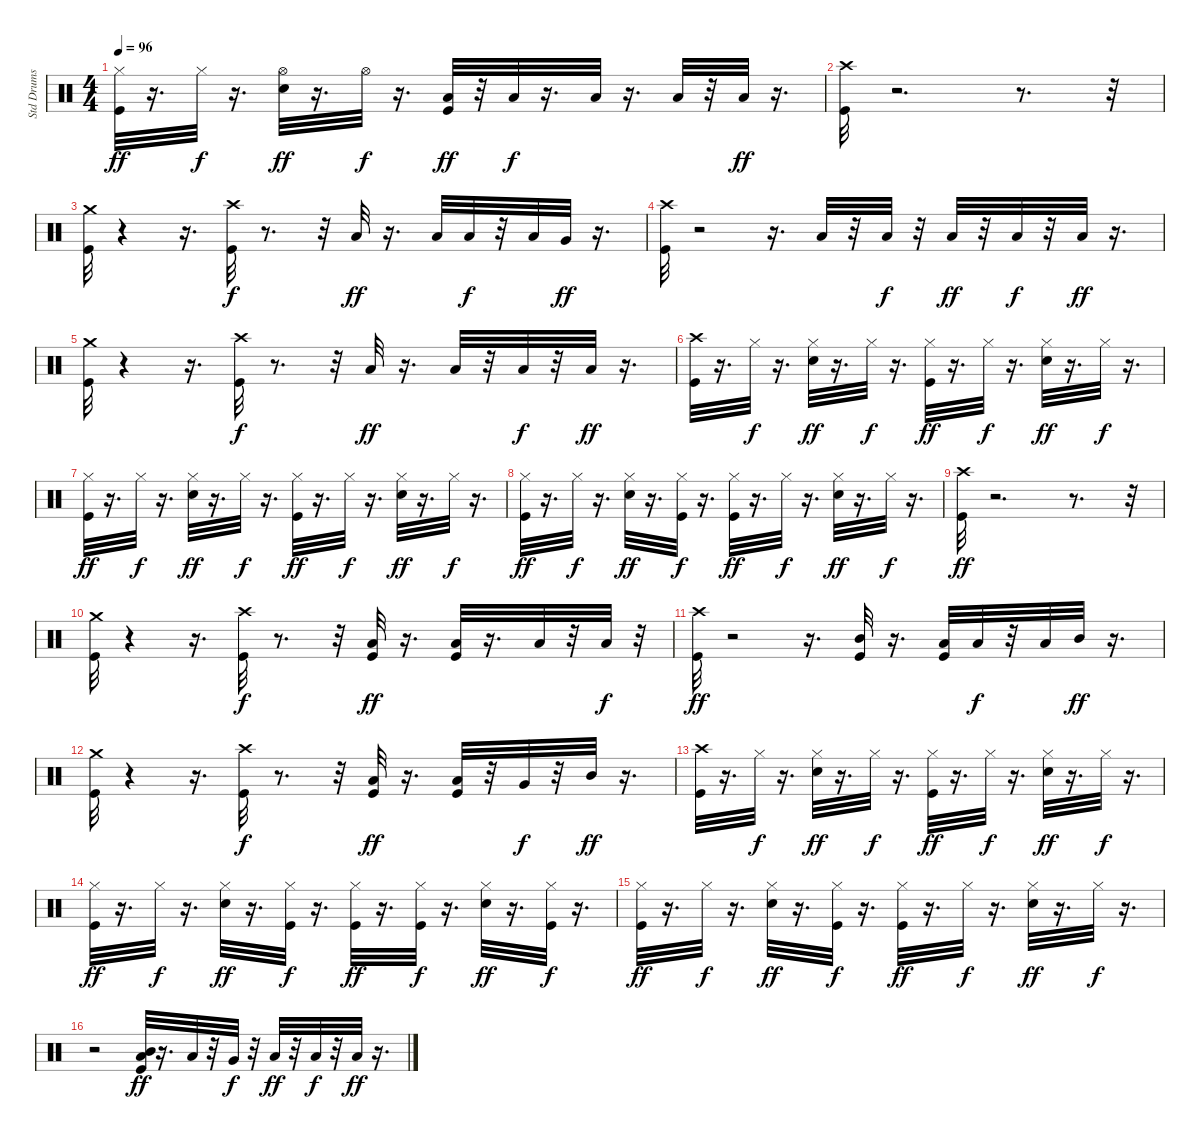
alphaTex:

\track ("Std Drums" "Std Drums") {instrument percussion}
\staff {score}
\articulation defaults
\ts (4 4)
\tempo 96
\clef neutral
\ks c
("Hi-Hat (closed)" "Kick (hit)").32{dy ff} r.16{d} "Hi-Hat (closed)".32{dy f} r.16{d} ("Snare (hit) 2" "Hi-Hat (open)").32{dy ff} r.16{d} "Hi-Hat (open)".32{dy f} r.16{d} ("Kick (hit)" "Low Tom (hit)").32{dy ff} r.32 "Low Tom (hit)".32{dy f} r.16{d} "Low Tom (hit)".32 r.16{d} "Low Floor Tom (hit)".32 r.32 "Low Floor Tom (hit)".32{dy ff} r.16{d} |
("Crash high (hit)" "Kick (hit)").32 r.2{d} r.8{d} r.32 |
("Crash medium (hit)" "Kick (hit)").32 r.4 r.16{d} ("Crash high (hit)" "Kick (hit)").32{dy f} r.8{d} r.32 "Low Tom (hit)".32{dy ff} r.16{d} "Low Floor Tom (hit)".32 "Low Floor Tom (hit)".32{dy f} r.32 "Low Floor Tom (hit)".32 "Very Low Tom (hit)".32{dy ff} r.16{d} |
("Kick (hit)" "Crash high (hit)").32 r.2 r.16{d} "Low Floor Tom (hit)".32 r.32 "Low Floor Tom (hit)".32{dy f} r.32 "Low Floor Tom (hit)".32{dy ff} r.32 "Low Floor Tom (hit)".32{dy f} r.32 "Low Floor Tom (hit)".32{dy ff} r.16{d} |
("Crash medium (hit)" "Kick (hit)").32 r.4 r.16{d} ("Kick (hit)" "Crash high (hit)").32{dy f} r.8{d} r.32 "Low Floor Tom (hit)".32{dy ff} r.16{d} "Low Floor Tom (hit)".32 r.32 "Low Floor Tom (hit)".32{dy f} r.32 "Low Floor Tom (hit)".32{dy ff} r.16{d} |
("Kick (hit)" "Crash high (hit)").32 r.16{d} "Hi-Hat (closed)".32{dy f} r.16{d} ("Hi-Hat (closed)" "Snare (hit) 2").32{dy ff} r.16{d} "Hi-Hat (closed)".32{dy f} r.16{d} ("Hi-Hat (closed)" "Kick (hit)").32{dy ff} r.16{d} "Hi-Hat (closed)".32{dy f} r.16{d} ("Hi-Hat (closed)" "Snare (hit) 2").32{dy ff} r.16{d} "Hi-Hat (closed)".32{dy f} r.16{d} |
("Hi-Hat (closed)" "Kick (hit)").32{dy ff} r.16{d} "Hi-Hat (closed)".32{dy f} r.16{d} ("Hi-Hat (closed)" "Snare (hit) 2").32{dy ff} r.16{d} "Hi-Hat (closed)".32{dy f} r.16{d} ("Hi-Hat (closed)" "Kick (hit)").32{dy ff} r.16{d} "Hi-Hat (closed)".32{dy f} r.16{d} ("Hi-Hat (closed)" "Snare (hit) 2").32{dy ff} r.16{d} "Hi-Hat (closed)".32{dy f} r.16{d} |
("Hi-Hat (closed)" "Kick (hit)").32{dy ff} r.16{d} "Hi-Hat (closed)".32{dy f} r.16{d} ("Hi-Hat (closed)" "Snare (hit) 2").32{dy ff} r.16{d} ("Hi-Hat (closed)" "Kick (hit)").32{dy f} r.16{d} ("Hi-Hat (closed)" "Kick (hit)").32{dy ff} r.16{d} "Hi-Hat (closed)".32{dy f} r.16{d} ("Hi-Hat (closed)" "Snare (hit) 2").32{dy ff} r.16{d} "Hi-Hat (closed)".32{dy f} r.16{d} |
("Kick (hit)" "Crash high (hit)").32{dy ff} r.2{d} r.8{d} r.32 |
("Kick (hit)" "Crash medium (hit)").32 r.4 r.16{d} ("Crash high (hit)" "Kick (hit)").32{dy f} r.8{d} r.32 ("Kick (hit)" "Low Tom (hit)").32{dy ff} r.16{d} ("Kick (hit)" "Low Tom (hit)").32 r.16{d} "Low Floor Tom (hit)".32 r.32 "Low Floor Tom (hit)".32{dy f} r.32 |
("Kick (hit)" "Crash high (hit)").32{dy ff} r.2 r.16{d} ("Mid Tom (hit)" "Kick (hit)").32 r.16{d} ("Low Tom (hit)" "Kick (hit)").32 "Low Tom (hit)".32{dy f} r.32 "Low Floor Tom (hit)".32 "Mid Tom (hit)".32{dy ff} r.16{d} |
("Crash medium (hit)" "Kick (hit)").32 r.4 r.16{d} ("Crash high (hit)" "Kick (hit)").32{dy f} r.8{d} r.32 ("Kick (hit)" "Low Floor Tom (hit)").32{dy ff} r.16{d} ("Low Floor Tom (hit)" "Kick (hit)").32 r.32 "Very Low Tom (hit)".32{dy f} r.32 "Mid Tom (hit)".32{dy ff} r.16{d} |
("Kick (hit)" "Crash high (hit)").32 r.16{d} "Hi-Hat (closed)".32{dy f} r.16{d} ("Hi-Hat (closed)" "Snare (hit) 2").32{dy ff} r.16{d} "Hi-Hat (closed)".32{dy f} r.16{d} ("Hi-Hat (closed)" "Kick (hit)").32{dy ff} r.16{d} "Hi-Hat (closed)".32{dy f} r.16{d} ("Hi-Hat (closed)" "Snare (hit) 2").32{dy ff} r.16{d} "Hi-Hat (closed)".32{dy f} r.16{d} |
("Hi-Hat (closed)" "Kick (hit)").32{dy ff} r.16{d} "Hi-Hat (closed)".32{dy f} r.16{d} ("Hi-Hat (closed)" "Snare (hit) 2").32{dy ff} r.16{d} ("Hi-Hat (closed)" "Kick (hit)").32{dy f} r.16{d} ("Hi-Hat (closed)" "Kick (hit)").32{dy ff} r.16{d} ("Hi-Hat (closed)" "Kick (hit)").32{dy f} r.16{d} ("Hi-Hat (closed)" "Snare (hit) 2").32{dy ff} r.16{d} ("Hi-Hat (closed)" "Kick (hit)").32{dy f} r.16{d} |
("Hi-Hat (closed)" "Kick (hit)").32{dy ff} r.16{d} "Hi-Hat (closed)".32{dy f} r.16{d} ("Hi-Hat (closed)" "Snare (hit) 2").32{dy ff} r.16{d} ("Hi-Hat (closed)" "Kick (hit)").32{dy f} r.16{d} ("Hi-Hat (closed)" "Kick (hit)").32{dy ff} r.16{d} "Hi-Hat (closed)".32{dy f} r.16{d} ("Hi-Hat (closed)" "Snare (hit) 2").32{dy ff} r.16{d} "Hi-Hat (closed)".32{dy f} r.16{d} |
r.2 ("Low Floor Tom (hit)" "Mid Tom (hit)" "Kick (hit)").32{dy ff} r.16{d} "Low Tom (hit)".32 r.32 "Very Low Tom (hit)".32{dy f} r.32 "Low Floor Tom (hit)".32{dy ff} r.32 "Low Floor Tom (hit)".32{dy f} r.32 "Low Floor Tom (hit)".32{dy ff} r.16{d}
